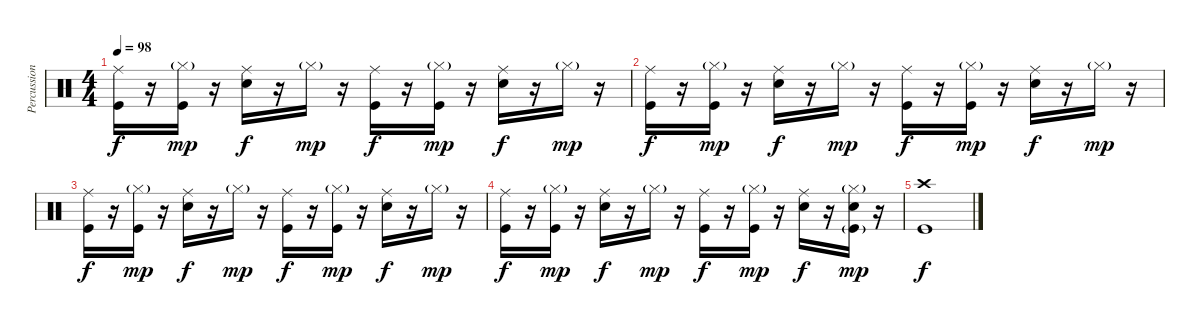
\track ("Percussion" "Percussion") {instrument percussion}
\staff {score}
\articulation defaults
\ts (4 4)
\tempo 98
\clef neutral
\ks c
("Ride (middle)" "Kick (hit)").16{dy f} r.16 ("Hi-Hat (closed)"{g} "Kick (hit)").16{dy mp} r.16 ("Ride (middle)" "Snare (hit) 2").16{dy f} r.16 "Hi-Hat (closed)"{g}.16{dy mp} r.16 ("Ride (middle)" "Kick (hit)").16{dy f} r.16 ("Hi-Hat (closed)"{g} "Kick (hit)").16{dy mp} r.16 ("Ride (middle)" "Snare (hit) 2").16{dy f} r.16 "Hi-Hat (closed)"{g}.16{dy mp} r.16 |
("Ride (middle)" "Kick (hit)").16{dy f} r.16 ("Hi-Hat (closed)"{g} "Kick (hit)").16{dy mp} r.16 ("Ride (middle)" "Snare (hit) 2").16{dy f} r.16 "Hi-Hat (closed)"{g}.16{dy mp} r.16 ("Ride (middle)" "Kick (hit)").16{dy f} r.16 ("Hi-Hat (closed)"{g} "Kick (hit)").16{dy mp} r.16 ("Ride (middle)" "Snare (hit) 2").16{dy f} r.16 "Hi-Hat (closed)"{g}.16{dy mp} r.16 |
("Ride (middle)" "Kick (hit)").16{dy f} r.16 ("Hi-Hat (closed)"{g} "Kick (hit)").16{dy mp} r.16 ("Ride (middle)" "Snare (hit) 2").16{dy f} r.16 "Hi-Hat (closed)"{g}.16{dy mp} r.16 ("Ride (middle)" "Kick (hit)").16{dy f} r.16 ("Hi-Hat (closed)"{g} "Kick (hit)").16{dy mp} r.16 ("Ride (middle)" "Snare (hit) 2").16{dy f} r.16 "Hi-Hat (closed)"{g}.16{dy mp} r.16 |
("Ride (middle)" "Kick (hit)").16{dy f} r.16 ("Hi-Hat (closed)"{g} "Kick (hit)").16{dy mp} r.16 ("Ride (middle)" "Snare (hit) 2").16{dy f} r.16 "Hi-Hat (closed)"{g}.16{dy mp} r.16 ("Ride (middle)" "Kick (hit)").16{dy f} r.16 ("Hi-Hat (closed)"{g} "Kick (hit)").16{dy mp} r.16 ("Ride (middle)" "Snare (hit) 2").16{dy f} r.16 ("Hi-Hat (closed)"{g} "Snare (hit) 2" "Kick (hit)"{g}).16{dy mp} r.16 |
("Crash high (hit)" "Kick (hit)").1{dy f}
